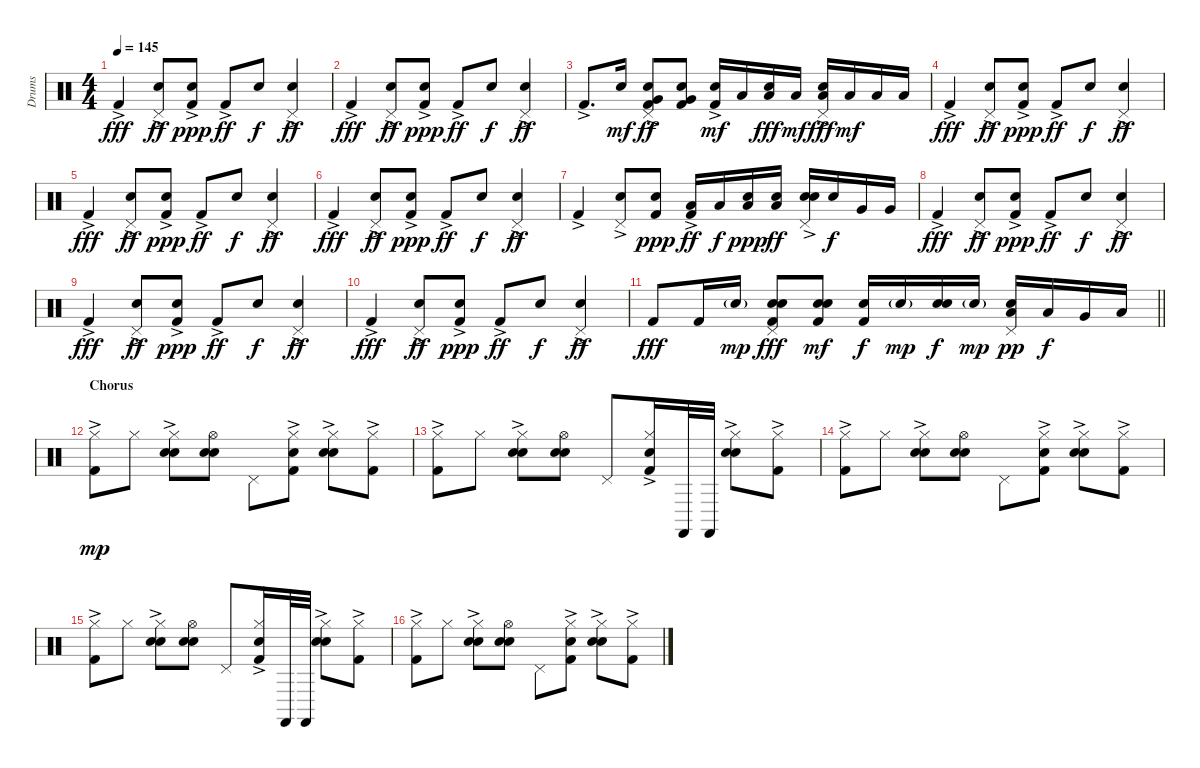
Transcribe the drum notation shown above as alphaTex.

\track ("Drums" "Drums") {instrument percussion}
\staff {score}
\articulation defaults
\ts (4 4)
\tempo 145
\clef neutral
\ks c "Kick (hit) 2"{ac}.4{dy fff}
("Pedal Hi-Hat (hit)" "Hand Clap (hit)"{ac}).8{dy ff} ("Kick (hit) 2"{ac} "Hand Clap (hit)").8{dy ppp} "Kick (hit) 2"{ac}.8{dy ff} "Hand Clap (hit)".8{dy f} ("Pedal Hi-Hat (hit)" "Hand Clap (hit)"{ac}).4{dy ff} |
"Kick (hit) 2"{ac}.4{dy fff} ("Pedal Hi-Hat (hit)" "Hand Clap (hit)"{ac}).8{dy ff} ("Kick (hit) 2"{ac} "Hand Clap (hit)").8{dy ppp} "Kick (hit) 2"{ac}.8{dy ff} "Hand Clap (hit)".8{dy f} ("Pedal Hi-Hat (hit)" "Hand Clap (hit)"{ac}).4{dy ff} |
"Kick (hit) 2"{ac}.8{d} "Electric Snare (hit)".16{dy mf} ("Kick (hit) 2" "Pedal Hi-Hat (hit)" "Hand Clap (hit)"{ac} "Very Low Tom (hit)").8{dy ff} ("Kick (hit) 2" "Hand Clap (hit)" "Very Low Tom (hit)").8 ("Kick (hit) 2"{ac} "Electric Snare (hit)").16{dy mf} "Low Floor Tom (hit)".16 ("Low Floor Tom (hit)" "Hand Clap (hit)").16{dy fff} "Low Floor Tom (hit)".16{dy mf} ("Pedal Hi-Hat (hit)" "Low Floor Tom (hit)" "Hand Clap (hit)"{ac}).16{dy fff} "Low Floor Tom (hit)".16{dy mf} "Low Floor Tom (hit)".16 "Low Floor Tom (hit)".16 |
"Kick (hit) 2"{ac}.4{dy fff} ("Pedal Hi-Hat (hit)" "Hand Clap (hit)"{ac}).8{dy ff} ("Kick (hit) 2"{ac} "Hand Clap (hit)").8{dy ppp} "Kick (hit) 2"{ac}.8{dy ff} "Hand Clap (hit)".8{dy f} ("Pedal Hi-Hat (hit)" "Hand Clap (hit)"{ac}).4{dy ff} |
"Kick (hit) 2"{ac}.4{dy fff} ("Pedal Hi-Hat (hit)" "Hand Clap (hit)"{ac}).8{dy ff} ("Kick (hit) 2"{ac} "Hand Clap (hit)").8{dy ppp} "Kick (hit) 2"{ac}.8{dy ff} "Hand Clap (hit)".8{dy f} ("Pedal Hi-Hat (hit)" "Hand Clap (hit)"{ac}).4{dy ff} |
"Kick (hit) 2"{ac}.4{dy fff} ("Pedal Hi-Hat (hit)" "Hand Clap (hit)"{ac}).8{dy ff} ("Kick (hit) 2"{ac} "Hand Clap (hit)").8{dy ppp} "Kick (hit) 2"{ac}.8{dy ff} "Hand Clap (hit)".8{dy f} ("Pedal Hi-Hat (hit)" "Hand Clap (hit)"{ac}).4{dy ff} |
"Kick (hit) 2"{ac}.4 ("Pedal Hi-Hat (hit)" "Hand Clap (hit)"{ac}).8 ("Kick (hit) 2" "Hand Clap (hit)").8{dy ppp} ("Kick (hit) 2"{ac} "Low Tom (hit)").16{dy ff} "Low Tom (hit)".16{dy f} ("Low Tom (hit)" "Hand Clap (hit)").16{dy ppp} ("Low Tom (hit)" "Electric Snare (hit)").16{dy ff} ("Pedal Hi-Hat (hit)" "Hand Clap (hit)"{ac} "Electric Snare (hit)").16 "Electric Snare (hit)".16{dy f} "Very Low Tom (hit)".16 "Very Low Tom (hit)".16 |
"Kick (hit) 2"{ac}.4{dy fff} ("Pedal Hi-Hat (hit)" "Hand Clap (hit)"{ac}).8{dy ff} ("Kick (hit) 2"{ac} "Hand Clap (hit)").8{dy ppp} "Kick (hit) 2"{ac}.8{dy ff} "Hand Clap (hit)".8{dy f} ("Pedal Hi-Hat (hit)" "Hand Clap (hit)"{ac}).4{dy ff} |
"Kick (hit) 2"{ac}.4{dy fff} ("Pedal Hi-Hat (hit)" "Hand Clap (hit)"{ac}).8{dy ff} ("Kick (hit) 2"{ac} "Hand Clap (hit)").8{dy ppp} "Kick (hit) 2"{ac}.8{dy ff} "Hand Clap (hit)".8{dy f} ("Pedal Hi-Hat (hit)" "Hand Clap (hit)"{ac}).4{dy ff} |
"Kick (hit) 2"{ac}.4{dy fff} ("Pedal Hi-Hat (hit)" "Hand Clap (hit)"{ac}).8{dy ff} ("Kick (hit) 2"{ac} "Hand Clap (hit)").8{dy ppp} "Kick (hit) 2"{ac}.8{dy ff} "Hand Clap (hit)".8{dy f} ("Pedal Hi-Hat (hit)" "Hand Clap (hit)"{ac}).4{dy ff} |
\barLineRight lightlight "Kick (hit) 2".8{dy fff} "Kick (hit) 2".16 "Electric Snare (hit)"{g}.16{dy mp}
("Kick (hit) 2" "Pedal Hi-Hat (hit)" "Hand Clap (hit)" "Electric Snare (hit)").8{dy fff} ("Kick (hit) 2" "Hand Clap (hit)" "Electric Snare (hit)").8{dy mf} ("Kick (hit) 2" "Electric Snare (hit)").16{dy f} "Electric Snare (hit)"{g}.16{dy mp} ("Hand Clap (hit)" "Electric Snare (hit)").16{dy f} "Electric Snare (hit)"{g}.16{dy mp} ("Pedal Hi-Hat (hit)" "Low Tom (hit)" "Hand Clap (hit)").16{dy pp} "Low Tom (hit)".16{dy f} "Very Low Tom (hit)".16 "Low Floor Tom (hit)".16 |
\section ("" "Chorus")
("Kick (hit) 2"{ac} "Hi-Hat (closed)").8{dy mp} "Hi-Hat (closed)".8 ("Hand Clap (hit)" "Electric Snare (hit)"{ac} "Hi-Hat (closed)").8 ("Hand Clap (hit)" "Electric Snare (hit)" "Hi-Hat (open)").8 "Pedal Hi-Hat (hit)".8 ("Kick (hit) 2"{ac} "Hand Clap (hit)" "Hi-Hat (closed)").8 ("Hand Clap (hit)" "Electric Snare (hit)"{ac} "Hi-Hat (closed)").8 ("Kick (hit) 2"{ac} "Hi-Hat (closed)").8 |
("Kick (hit) 2"{ac} "Hi-Hat (closed)").8 "Hi-Hat (closed)".8 ("Hand Clap (hit)" "Electric Snare (hit)"{ac} "Hi-Hat (closed)").8 ("Hand Clap (hit)" "Electric Snare (hit)" "Hi-Hat (open)").8 "Pedal Hi-Hat (hit)".8 ("Kick (hit) 2"{ac} "Hand Clap (hit)" "Hi-Hat (closed)").16 "Castanets (hit)".32 "Castanets (hit)".32 ("Hand Clap (hit)" "Electric Snare (hit)"{ac} "Hi-Hat (closed)").8 ("Kick (hit) 2"{ac} "Hi-Hat (closed)").8 |
("Kick (hit) 2"{ac} "Hi-Hat (closed)").8 "Hi-Hat (closed)".8 ("Hand Clap (hit)" "Electric Snare (hit)"{ac} "Hi-Hat (closed)").8 ("Hand Clap (hit)" "Electric Snare (hit)" "Hi-Hat (open)").8 "Pedal Hi-Hat (hit)".8 ("Kick (hit) 2"{ac} "Hand Clap (hit)" "Hi-Hat (closed)").8 ("Hand Clap (hit)" "Electric Snare (hit)"{ac} "Hi-Hat (closed)").8 ("Kick (hit) 2"{ac} "Hi-Hat (closed)").8 |
("Kick (hit) 2"{ac} "Hi-Hat (closed)").8 "Hi-Hat (closed)".8 ("Hand Clap (hit)" "Electric Snare (hit)"{ac} "Hi-Hat (closed)").8 ("Hand Clap (hit)" "Electric Snare (hit)" "Hi-Hat (open)").8 "Pedal Hi-Hat (hit)".8 ("Kick (hit) 2"{ac} "Hand Clap (hit)" "Hi-Hat (closed)").16 "Castanets (hit)".32 "Castanets (hit)".32 ("Hand Clap (hit)" "Electric Snare (hit)"{ac} "Hi-Hat (closed)").8 ("Kick (hit) 2"{ac} "Hi-Hat (closed)").8 |
("Kick (hit) 2"{ac} "Hi-Hat (closed)").8 "Hi-Hat (closed)".8 ("Hand Clap (hit)" "Electric Snare (hit)"{ac} "Hi-Hat (closed)").8 ("Hand Clap (hit)" "Electric Snare (hit)" "Hi-Hat (open)").8 "Pedal Hi-Hat (hit)".8 ("Kick (hit) 2"{ac} "Hand Clap (hit)" "Hi-Hat (closed)").8 ("Hand Clap (hit)" "Electric Snare (hit)"{ac} "Hi-Hat (closed)").8 ("Kick (hit) 2"{ac} "Hi-Hat (closed)").8
